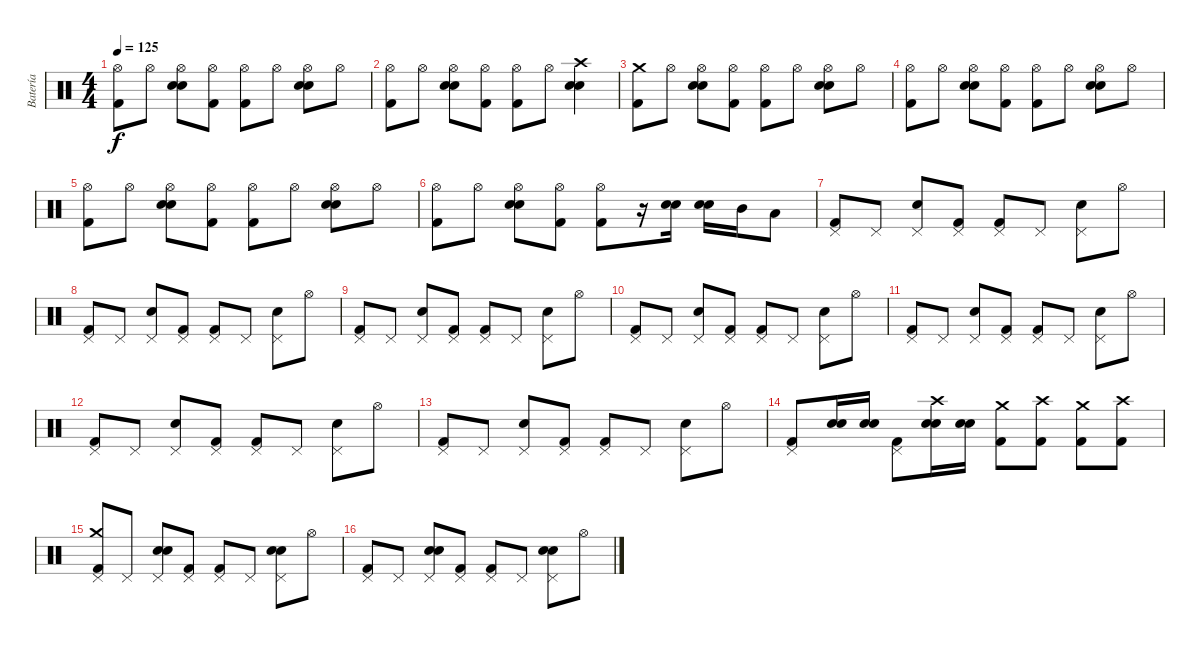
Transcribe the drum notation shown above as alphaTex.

\track ("Batería" "Batería") {instrument percussion}
\staff {score}
\articulation defaults
\ts (4 4)
\tempo 125
\clef neutral
\ks c
("Kick (hit) 2" "Hi-Hat (open)").8{dy f} "Hi-Hat (open)".8 ("Electric Snare (hit)" "Hi-Hat (open)" "Snare (hit) 2").8 ("Kick (hit) 2" "Hi-Hat (open)").8 ("Kick (hit) 2" "Hi-Hat (open)").8 "Hi-Hat (open)".8 ("Electric Snare (hit)" "Hi-Hat (open)" "Snare (hit) 2").8 "Hi-Hat (open)".8 |
("Kick (hit) 2" "Hi-Hat (open)").8 "Hi-Hat (open)".8 ("Electric Snare (hit)" "Hi-Hat (open)" "Snare (hit) 2").8 ("Kick (hit) 2" "Hi-Hat (open)").8 ("Kick (hit) 2" "Hi-Hat (open)").8 "Hi-Hat (open)".8 ("Snare (hit) 2" "Electric Snare (hit)" "Crash high (hit)").4 |
("Kick (hit) 2" "Crash medium (hit)").8 "Hi-Hat (open)".8 ("Electric Snare (hit)" "Hi-Hat (open)" "Snare (hit) 2").8 ("Kick (hit) 2" "Hi-Hat (open)").8 ("Kick (hit) 2" "Hi-Hat (open)").8 "Hi-Hat (open)".8 ("Electric Snare (hit)" "Hi-Hat (open)" "Snare (hit) 2").8 "Hi-Hat (open)".8 |
("Kick (hit) 2" "Hi-Hat (open)").8 "Hi-Hat (open)".8 ("Electric Snare (hit)" "Hi-Hat (open)" "Snare (hit) 2").8 ("Kick (hit) 2" "Hi-Hat (open)").8 ("Kick (hit) 2" "Hi-Hat (open)").8 "Hi-Hat (open)".8 ("Electric Snare (hit)" "Hi-Hat (open)" "Snare (hit) 2").8 "Hi-Hat (open)".8 |
("Kick (hit) 2" "Hi-Hat (open)").8 "Hi-Hat (open)".8 ("Electric Snare (hit)" "Hi-Hat (open)" "Snare (hit) 2").8 ("Kick (hit) 2" "Hi-Hat (open)").8 ("Kick (hit) 2" "Hi-Hat (open)").8 "Hi-Hat (open)".8 ("Electric Snare (hit)" "Hi-Hat (open)" "Snare (hit) 2").8 "Hi-Hat (open)".8 |
("Kick (hit) 2" "Hi-Hat (open)").8 "Hi-Hat (open)".8 ("Electric Snare (hit)" "Hi-Hat (open)" "Snare (hit) 2").8 ("Kick (hit) 2" "Hi-Hat (open)").8 ("Kick (hit) 2" "Hi-Hat (open)").8 r.16 ("Electric Snare (hit)" "Snare (hit) 2").16 ("Electric Snare (hit)" "Snare (hit) 2").16 "Mid Tom (hit)".16 "Low Tom (hit)".8 |
("Kick (hit) 2" "Pedal Hi-Hat (hit)").8 "Pedal Hi-Hat (hit)".8 ("Electric Snare (hit)" "Pedal Hi-Hat (hit)").8 ("Kick (hit) 2" "Pedal Hi-Hat (hit)").8 ("Kick (hit) 2" "Pedal Hi-Hat (hit)").8 "Pedal Hi-Hat (hit)".8 ("Electric Snare (hit)" "Pedal Hi-Hat (hit)").8 "Hi-Hat (open)".8 |
("Kick (hit) 2" "Pedal Hi-Hat (hit)").8 "Pedal Hi-Hat (hit)".8 ("Electric Snare (hit)" "Pedal Hi-Hat (hit)").8 ("Kick (hit) 2" "Pedal Hi-Hat (hit)").8 ("Kick (hit) 2" "Pedal Hi-Hat (hit)").8 "Pedal Hi-Hat (hit)".8 ("Electric Snare (hit)" "Pedal Hi-Hat (hit)").8 "Hi-Hat (open)".8 |
("Kick (hit) 2" "Pedal Hi-Hat (hit)").8 "Pedal Hi-Hat (hit)".8 ("Electric Snare (hit)" "Pedal Hi-Hat (hit)").8 ("Kick (hit) 2" "Pedal Hi-Hat (hit)").8 ("Kick (hit) 2" "Pedal Hi-Hat (hit)").8 "Pedal Hi-Hat (hit)".8 ("Electric Snare (hit)" "Pedal Hi-Hat (hit)").8 "Hi-Hat (open)".8 |
("Kick (hit) 2" "Pedal Hi-Hat (hit)").8 "Pedal Hi-Hat (hit)".8 ("Electric Snare (hit)" "Pedal Hi-Hat (hit)").8 ("Kick (hit) 2" "Pedal Hi-Hat (hit)").8 ("Kick (hit) 2" "Pedal Hi-Hat (hit)").8 "Pedal Hi-Hat (hit)".8 ("Electric Snare (hit)" "Pedal Hi-Hat (hit)").8 "Hi-Hat (open)".8 |
("Kick (hit) 2" "Pedal Hi-Hat (hit)").8 "Pedal Hi-Hat (hit)".8 ("Electric Snare (hit)" "Pedal Hi-Hat (hit)").8 ("Kick (hit) 2" "Pedal Hi-Hat (hit)").8 ("Kick (hit) 2" "Pedal Hi-Hat (hit)").8 "Pedal Hi-Hat (hit)".8 ("Electric Snare (hit)" "Pedal Hi-Hat (hit)").8 "Hi-Hat (open)".8 |
("Kick (hit) 2" "Pedal Hi-Hat (hit)").8 "Pedal Hi-Hat (hit)".8 ("Electric Snare (hit)" "Pedal Hi-Hat (hit)").8 ("Kick (hit) 2" "Pedal Hi-Hat (hit)").8 ("Kick (hit) 2" "Pedal Hi-Hat (hit)").8 "Pedal Hi-Hat (hit)".8 ("Electric Snare (hit)" "Pedal Hi-Hat (hit)").8 "Hi-Hat (open)".8 |
("Kick (hit) 2" "Pedal Hi-Hat (hit)").8 "Pedal Hi-Hat (hit)".8 ("Electric Snare (hit)" "Pedal Hi-Hat (hit)").8 ("Kick (hit) 2" "Pedal Hi-Hat (hit)").8 ("Kick (hit) 2" "Pedal Hi-Hat (hit)").8 "Pedal Hi-Hat (hit)".8 ("Electric Snare (hit)" "Pedal Hi-Hat (hit)").8 "Hi-Hat (open)".8 |
("Kick (hit) 2" "Pedal Hi-Hat (hit)").8 ("Electric Snare (hit)" "Snare (hit) 2").16 ("Electric Snare (hit)" "Snare (hit) 2").16 ("Kick (hit) 2" "Pedal Hi-Hat (hit)").8 ("Electric Snare (hit)" "Snare (hit) 2" "Crash high (hit)").16 ("Electric Snare (hit)" "Snare (hit) 2").16 ("Kick (hit) 2" "Crash medium (hit)").8 ("Kick (hit) 2" "Crash high (hit)").8 ("Kick (hit) 2" "Crash medium (hit)").8 ("Kick (hit) 2" "Crash high (hit)").8 |
("Kick (hit) 2" "Pedal Hi-Hat (hit)" "Crash medium (hit)").8 "Pedal Hi-Hat (hit)".8 ("Electric Snare (hit)" "Pedal Hi-Hat (hit)" "Snare (hit) 2").8 ("Kick (hit) 2" "Pedal Hi-Hat (hit)").8 ("Kick (hit) 2" "Pedal Hi-Hat (hit)").8 "Pedal Hi-Hat (hit)".8 ("Electric Snare (hit)" "Pedal Hi-Hat (hit)" "Snare (hit) 2").8 "Hi-Hat (open)".8 |
("Kick (hit) 2" "Pedal Hi-Hat (hit)").8 "Pedal Hi-Hat (hit)".8 ("Electric Snare (hit)" "Pedal Hi-Hat (hit)" "Snare (hit) 2").8 ("Kick (hit) 2" "Pedal Hi-Hat (hit)").8 ("Kick (hit) 2" "Pedal Hi-Hat (hit)").8 "Pedal Hi-Hat (hit)".8 ("Electric Snare (hit)" "Pedal Hi-Hat (hit)" "Snare (hit) 2").8 "Hi-Hat (open)".8
